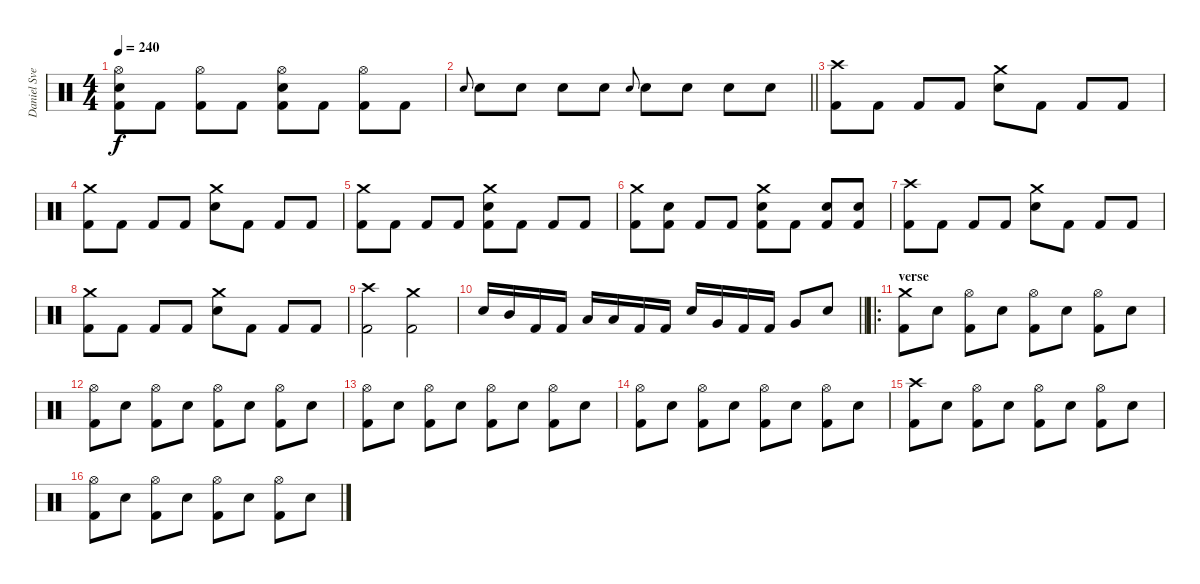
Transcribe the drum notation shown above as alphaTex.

\track ("Daniel Svensson" "Daniel Sve") {instrument percussion}
\staff {score}
\articulation defaults
\ts (4 4)
\tempo 240
\clef neutral
\ks c
("Hi-Hat (open)" "Electric Snare (hit)" "Kick (hit) 2").8{dy f} "Kick (hit) 2".8 ("Hi-Hat (open)" "Kick (hit) 2").8 "Kick (hit) 2".8 ("Hi-Hat (open)" "Electric Snare (hit)" "Kick (hit) 2").8 "Kick (hit) 2".8 ("Hi-Hat (open)" "Kick (hit) 2").8 "Kick (hit) 2".8 |
\barLineRight lightlight "Electric Snare (hit)".8{gr onbeat} "Electric Snare (hit)".8 "Electric Snare (hit)".8 "Electric Snare (hit)".8 "Electric Snare (hit)".8 "Electric Snare (hit)".8{gr onbeat} "Electric Snare (hit)".8 "Electric Snare (hit)".8 "Electric Snare (hit)".8 "Electric Snare (hit)".8
|
\section ("" "")
("Crash high (hit)" "Kick (hit) 2").8 "Kick (hit) 2".8 "Kick (hit) 2".8 "Kick (hit) 2".8 ("Crash medium (hit)" "Electric Snare (hit)").8 "Kick (hit) 2".8 "Kick (hit) 2".8 "Kick (hit) 2".8 |
("Crash medium (hit)" "Kick (hit) 2").8 "Kick (hit) 2".8 "Kick (hit) 2".8 "Kick (hit) 2".8 ("Crash medium (hit)" "Electric Snare (hit)").8 "Kick (hit) 2".8 "Kick (hit) 2".8 "Kick (hit) 2".8 |
("Crash medium (hit)" "Kick (hit) 2").8 "Kick (hit) 2".8 "Kick (hit) 2".8 "Kick (hit) 2".8 ("Crash medium (hit)" "Electric Snare (hit)" "Kick (hit) 2").8 "Kick (hit) 2".8 "Kick (hit) 2".8 "Kick (hit) 2".8 |
("Crash medium (hit)" "Kick (hit) 2").8 ("Electric Snare (hit)" "Kick (hit) 2").8 "Kick (hit) 2".8 "Kick (hit) 2".8 ("Crash medium (hit)" "Electric Snare (hit)" "Kick (hit) 2").8 "Kick (hit) 2".8 ("Electric Snare (hit)" "Kick (hit) 2").8 ("Electric Snare (hit)" "Kick (hit) 2").8 |
("Crash high (hit)" "Kick (hit) 2").8 "Kick (hit) 2".8 "Kick (hit) 2".8 "Kick (hit) 2".8 ("Crash medium (hit)" "Electric Snare (hit)").8 "Kick (hit) 2".8 "Kick (hit) 2".8 "Kick (hit) 2".8 |
("Crash medium (hit)" "Kick (hit) 2").8 "Kick (hit) 2".8 "Kick (hit) 2".8 "Kick (hit) 2".8 ("Crash medium (hit)" "Electric Snare (hit)").8 "Kick (hit) 2".8 "Kick (hit) 2".8 "Kick (hit) 2".8 |
("Crash high (hit)" "Kick (hit) 2").2 ("Crash medium (hit)" "Kick (hit) 2").2 |
\barLineRight lightlight "Electric Snare (hit)".16 "Mid Tom (hit)".16 "Kick (hit) 2".16 "Kick (hit) 2".16 "Low Tom (hit)".16 "Low Tom (hit)".16 "Kick (hit) 2".16 "Kick (hit) 2".16 "Electric Snare (hit)".16 "Very Low Tom (hit)".16 "Kick (hit) 2".16 "Kick (hit) 2".16 "Very Low Tom (hit)".8 "Electric Snare (hit)".8
|
\ro
\section ("" "verse")
("Crash medium (hit)" "Kick (hit) 2").8 "Electric Snare (hit)".8 ("Hi-Hat (open)" "Kick (hit) 2").8 "Electric Snare (hit)".8 ("Hi-Hat (open)" "Kick (hit) 2").8 "Electric Snare (hit)".8 ("Hi-Hat (open)" "Kick (hit) 2").8 "Electric Snare (hit)".8 |
("Hi-Hat (open)" "Kick (hit) 2").8 "Electric Snare (hit)".8 ("Hi-Hat (open)" "Kick (hit) 2").8 "Electric Snare (hit)".8 ("Hi-Hat (open)" "Kick (hit) 2").8 "Electric Snare (hit)".8 ("Hi-Hat (open)" "Kick (hit) 2").8 "Electric Snare (hit)".8 |
("Hi-Hat (open)" "Kick (hit) 2").8 "Electric Snare (hit)".8 ("Hi-Hat (open)" "Kick (hit) 2").8 "Electric Snare (hit)".8 ("Hi-Hat (open)" "Kick (hit) 2").8 "Electric Snare (hit)".8 ("Hi-Hat (open)" "Kick (hit) 2").8 "Electric Snare (hit)".8 |
("Hi-Hat (open)" "Kick (hit) 2").8 "Electric Snare (hit)".8 ("Hi-Hat (open)" "Kick (hit) 2").8 "Electric Snare (hit)".8 ("Hi-Hat (open)" "Kick (hit) 2").8 "Electric Snare (hit)".8 ("Hi-Hat (open)" "Kick (hit) 2").8 "Electric Snare (hit)".8 |
("Crash high (hit)" "Kick (hit) 2").8 "Electric Snare (hit)".8 ("Hi-Hat (open)" "Kick (hit) 2").8 "Electric Snare (hit)".8 ("Hi-Hat (open)" "Kick (hit) 2").8 "Electric Snare (hit)".8 ("Hi-Hat (open)" "Kick (hit) 2").8 "Electric Snare (hit)".8 |
("Hi-Hat (open)" "Kick (hit) 2").8 "Electric Snare (hit)".8 ("Hi-Hat (open)" "Kick (hit) 2").8 "Electric Snare (hit)".8 ("Hi-Hat (open)" "Kick (hit) 2").8 "Electric Snare (hit)".8 ("Hi-Hat (open)" "Kick (hit) 2").8 "Electric Snare (hit)".8
